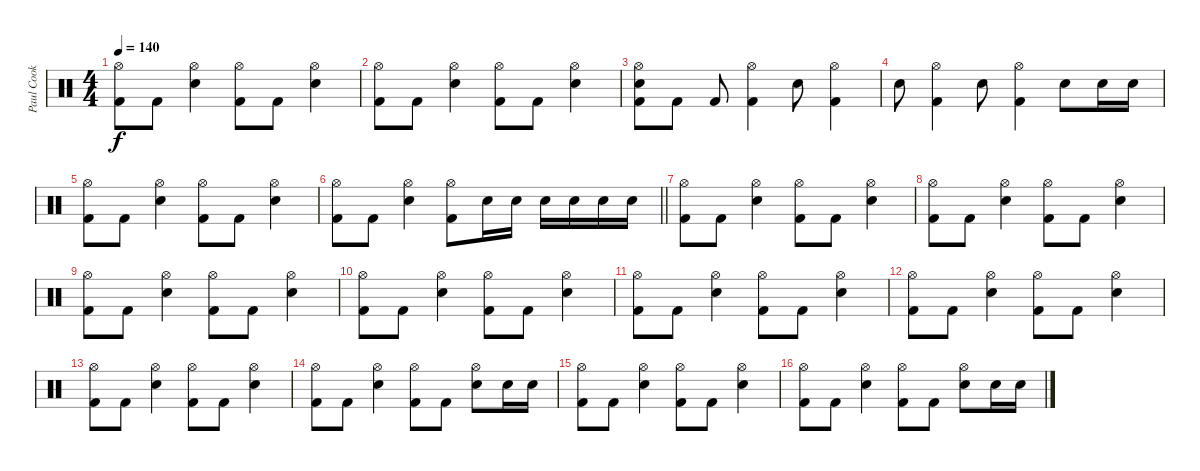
\track ("Paul Cook" "Paul Cook") {instrument percussion}
\staff {score}
\articulation defaults
\ts (4 4)
\tempo 140
\clef neutral
\ks c
("Hi-Hat (open)" "Kick (hit) 2").8{dy f} "Kick (hit) 2".8 ("Hi-Hat (open)" "Electric Snare (hit)").4 ("Hi-Hat (open)" "Kick (hit) 2").8 "Kick (hit) 2".8 ("Hi-Hat (open)" "Electric Snare (hit)").4 |
("Hi-Hat (open)" "Kick (hit) 2").8 "Kick (hit) 2".8 ("Hi-Hat (open)" "Electric Snare (hit)").4 ("Hi-Hat (open)" "Kick (hit) 2").8 "Kick (hit) 2".8 ("Hi-Hat (open)" "Electric Snare (hit)").4 |
("Hi-Hat (open)" "Electric Snare (hit)" "Kick (hit) 2").8 "Kick (hit) 2".8 "Kick (hit) 2".8 ("Hi-Hat (open)" "Kick (hit) 2").4 "Electric Snare (hit)".8 ("Hi-Hat (open)" "Kick (hit) 2").4 |
"Electric Snare (hit)".8 ("Hi-Hat (open)" "Kick (hit) 2").4 "Electric Snare (hit)".8 ("Hi-Hat (open)" "Kick (hit) 2").4 "Electric Snare (hit)".8 "Electric Snare (hit)".16 "Electric Snare (hit)".16 |
("Hi-Hat (open)" "Kick (hit) 2").8 "Kick (hit) 2".8 ("Hi-Hat (open)" "Electric Snare (hit)").4 ("Hi-Hat (open)" "Kick (hit) 2").8 "Kick (hit) 2".8 ("Hi-Hat (open)" "Electric Snare (hit)").4 |
\barLineRight lightlight
("Hi-Hat (open)" "Kick (hit) 2").8 "Kick (hit) 2".8 ("Hi-Hat (open)" "Electric Snare (hit)").4 ("Hi-Hat (open)" "Kick (hit) 2").8 "Electric Snare (hit)".16 "Electric Snare (hit)".16 "Electric Snare (hit)".16 "Electric Snare (hit)".16 "Electric Snare (hit)".16 "Electric Snare (hit)".16 |
("Hi-Hat (open)" "Kick (hit) 2").8 "Kick (hit) 2".8 ("Hi-Hat (open)" "Electric Snare (hit)").4 ("Hi-Hat (open)" "Kick (hit) 2").8 "Kick (hit) 2".8 ("Hi-Hat (open)" "Electric Snare (hit)").4 |
("Hi-Hat (open)" "Kick (hit) 2").8 "Kick (hit) 2".8 ("Hi-Hat (open)" "Electric Snare (hit)").4 ("Hi-Hat (open)" "Kick (hit) 2").8 "Kick (hit) 2".8 ("Hi-Hat (open)" "Electric Snare (hit)").4 |
("Hi-Hat (open)" "Kick (hit) 2").8 "Kick (hit) 2".8 ("Hi-Hat (open)" "Electric Snare (hit)").4 ("Hi-Hat (open)" "Kick (hit) 2").8 "Kick (hit) 2".8 ("Hi-Hat (open)" "Electric Snare (hit)").4 |
("Hi-Hat (open)" "Kick (hit) 2").8 "Kick (hit) 2".8 ("Hi-Hat (open)" "Electric Snare (hit)").4 ("Hi-Hat (open)" "Kick (hit) 2").8 "Kick (hit) 2".8 ("Hi-Hat (open)" "Electric Snare (hit)").4 |
("Hi-Hat (open)" "Kick (hit) 2").8 "Kick (hit) 2".8 ("Hi-Hat (open)" "Electric Snare (hit)").4 ("Hi-Hat (open)" "Kick (hit) 2").8 "Kick (hit) 2".8 ("Hi-Hat (open)" "Electric Snare (hit)").4 |
("Hi-Hat (open)" "Kick (hit) 2").8 "Kick (hit) 2".8 ("Hi-Hat (open)" "Electric Snare (hit)").4 ("Hi-Hat (open)" "Kick (hit) 2").8 "Kick (hit) 2".8 ("Hi-Hat (open)" "Electric Snare (hit)").4 |
("Hi-Hat (open)" "Kick (hit) 2").8 "Kick (hit) 2".8 ("Hi-Hat (open)" "Electric Snare (hit)").4 ("Hi-Hat (open)" "Kick (hit) 2").8 "Kick (hit) 2".8 ("Hi-Hat (open)" "Electric Snare (hit)").4 |
("Hi-Hat (open)" "Kick (hit) 2").8 "Kick (hit) 2".8 ("Hi-Hat (open)" "Electric Snare (hit)").4 ("Hi-Hat (open)" "Kick (hit) 2").8 "Kick (hit) 2".8 ("Hi-Hat (open)" "Electric Snare (hit)").8 "Electric Snare (hit)".16 "Electric Snare (hit)".16 |
("Hi-Hat (open)" "Kick (hit) 2").8 "Kick (hit) 2".8 ("Hi-Hat (open)" "Electric Snare (hit)").4 ("Hi-Hat (open)" "Kick (hit) 2").8 "Kick (hit) 2".8 ("Hi-Hat (open)" "Electric Snare (hit)").4 |
("Hi-Hat (open)" "Kick (hit) 2").8 "Kick (hit) 2".8 ("Hi-Hat (open)" "Electric Snare (hit)").4 ("Hi-Hat (open)" "Kick (hit) 2").8 "Kick (hit) 2".8 ("Hi-Hat (open)" "Electric Snare (hit)").8 "Electric Snare (hit)".16 "Electric Snare (hit)".16
